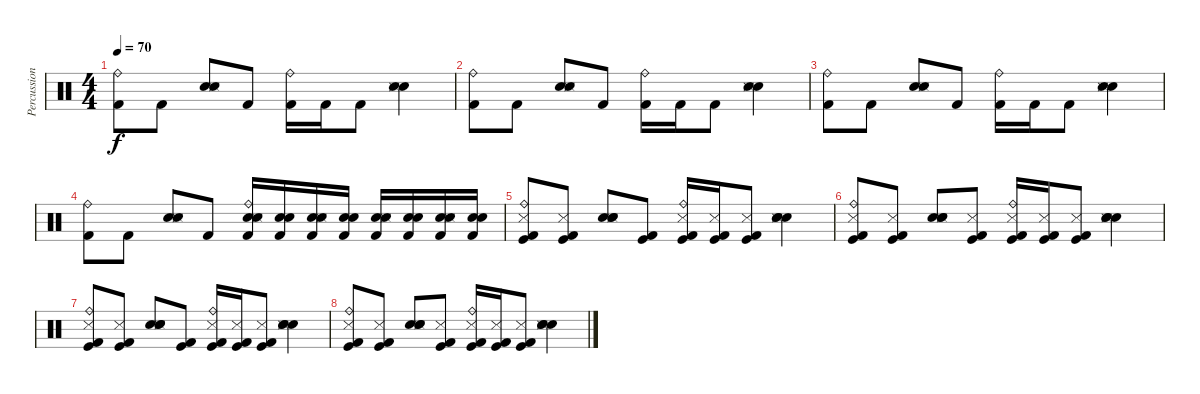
\track ("Percussion2" "Percussion") {instrument percussion}
\staff {score}
\articulation defaults
\ts (4 4)
\tempo 70
\clef neutral
\ks c
("Kick (hit) 2" "Ride (bell)").8{dy f} "Kick (hit) 2".8 ("Hand Clap (hit)" "Electric Snare (hit)" "Snare (side stick) 3").8 "Kick (hit) 2".8 ("Kick (hit) 2" "Ride (bell)").16 "Kick (hit) 2".16 "Kick (hit) 2".8 ("Hand Clap (hit)" "Electric Snare (hit)" "Snare (side stick) 3").4 |
("Kick (hit) 2" "Ride (bell)").8 "Kick (hit) 2".8 ("Hand Clap (hit)" "Electric Snare (hit)" "Snare (side stick) 3").8 "Kick (hit) 2".8 ("Kick (hit) 2" "Ride (bell)").16 "Kick (hit) 2".16 "Kick (hit) 2".8 ("Hand Clap (hit)" "Electric Snare (hit)" "Snare (side stick) 3").4 |
("Kick (hit) 2" "Ride (bell)").8 "Kick (hit) 2".8 ("Hand Clap (hit)" "Electric Snare (hit)" "Snare (side stick) 3").8 "Kick (hit) 2".8 ("Kick (hit) 2" "Ride (bell)").16 "Kick (hit) 2".16 "Kick (hit) 2".8 ("Hand Clap (hit)" "Electric Snare (hit)" "Snare (side stick) 3").4 |
("Kick (hit) 2" "Ride (bell)").8 "Kick (hit) 2".8 ("Hand Clap (hit)" "Electric Snare (hit)" "Snare (side stick) 3").8 "Kick (hit) 2".8 ("Kick (hit) 2" "Hand Clap (hit)" "Electric Snare (hit)" "Snare (side stick) 3" "Ride (bell)").16 ("Kick (hit) 2" "Hand Clap (hit)" "Electric Snare (hit)").16 ("Kick (hit) 2" "Hand Clap (hit)" "Electric Snare (hit)" "Snare (side stick) 3").16 ("Kick (hit) 2" "Hand Clap (hit)" "Electric Snare (hit)").16 ("Kick (hit) 2" "Hand Clap (hit)" "Electric Snare (hit)" "Snare (side stick) 3").16 ("Kick (hit) 2" "Hand Clap (hit)" "Electric Snare (hit)").16 ("Kick (hit) 2" "Hand Clap (hit)" "Electric Snare (hit)" "Snare (side stick) 3").16 ("Kick (hit) 2" "Hand Clap (hit)" "Electric Snare (hit)").16 |
("Kick (hit) 2" "Kick (hit)" "Snare (side stick) 3" "Ride (bell)").8 ("Kick (hit) 2" "Kick (hit)" "Snare (side stick) 3").8 ("Hand Clap (hit)" "Snare (hit) 2" "Snare (side stick) 3" "Electric Snare (hit)").8 ("Kick (hit) 2" "Kick (hit)").8 ("Kick (hit) 2" "Kick (hit)" "Snare (side stick) 3" "Ride (bell)").16 ("Kick (hit) 2" "Kick (hit)" "Snare (side stick) 3").16 ("Kick (hit) 2" "Kick (hit)" "Snare (side stick) 3").8 ("Hand Clap (hit)" "Snare (hit) 2" "Snare (side stick) 3" "Electric Snare (hit)").4 |
("Kick (hit) 2" "Kick (hit)" "Snare (side stick) 3" "Ride (bell)").8 ("Kick (hit) 2" "Kick (hit)" "Snare (side stick) 3").8 ("Snare (hit) 2" "Hand Clap (hit)" "Snare (side stick) 3" "Electric Snare (hit)").8 ("Kick (hit) 2" "Kick (hit)" "Snare (side stick) 3").8 ("Kick (hit) 2" "Kick (hit)" "Snare (side stick) 3" "Ride (bell)").16 ("Kick (hit) 2" "Kick (hit)" "Snare (side stick) 3").16 ("Kick (hit) 2" "Kick (hit)" "Snare (side stick) 3").8 ("Hand Clap (hit)" "Snare (hit) 2" "Snare (side stick) 3" "Electric Snare (hit)").4 |
("Kick (hit) 2" "Kick (hit)" "Snare (side stick) 3" "Ride (bell)").8 ("Kick (hit) 2" "Kick (hit)" "Snare (side stick) 3").8 ("Hand Clap (hit)" "Snare (hit) 2" "Snare (side stick) 3" "Electric Snare (hit)").8 ("Kick (hit) 2" "Kick (hit)").8 ("Kick (hit) 2" "Kick (hit)" "Snare (side stick) 3" "Ride (bell)").16 ("Kick (hit) 2" "Kick (hit)" "Snare (side stick) 3").16 ("Kick (hit) 2" "Kick (hit)" "Snare (side stick) 3").8 ("Hand Clap (hit)" "Snare (hit) 2" "Snare (side stick) 3" "Electric Snare (hit)").4 |
("Kick (hit) 2" "Kick (hit)" "Snare (side stick) 3" "Ride (bell)").8 ("Kick (hit) 2" "Kick (hit)" "Snare (side stick) 3").8 ("Snare (hit) 2" "Hand Clap (hit)" "Snare (side stick) 3" "Electric Snare (hit)").8 ("Kick (hit) 2" "Kick (hit)" "Snare (side stick) 3").8 ("Kick (hit) 2" "Kick (hit)" "Snare (side stick) 3" "Ride (bell)").16 ("Kick (hit) 2" "Kick (hit)" "Snare (side stick) 3").16 ("Kick (hit) 2" "Kick (hit)" "Snare (side stick) 3").8 ("Hand Clap (hit)" "Snare (hit) 2" "Snare (side stick) 3" "Electric Snare (hit)").4
